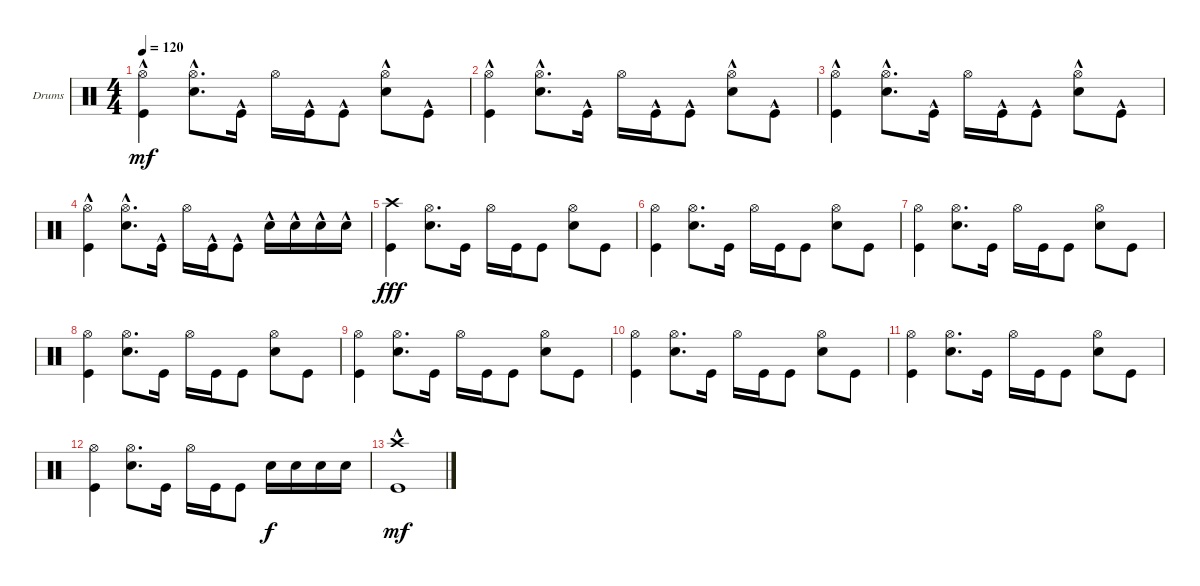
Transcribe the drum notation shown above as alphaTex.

\defaultSystemsLayout 4
\bracketExtendMode groupsimilarinstruments
\firstSystemTrackNameOrientation horizontal
\otherSystemsTrackNameOrientation horizontal
\track ("Drumkit" "Drums") {instrument percussion}
\staff {score}
\articulation defaults
\ts (4 4)
\tempo 120
\clef neutral
\ks c
("Kick (hit)"{hac} "Hi-Hat (open)").4{dy mf} ("Snare (hit) 2"{hac} "Hi-Hat (open)").8{d} "Kick (hit)"{hac}.16 "Hi-Hat (open)".16 "Kick (hit)"{hac}.16 "Kick (hit)"{hac}.8 ("Snare (hit) 2"{hac} "Hi-Hat (open)").8 "Kick (hit)"{hac}.8 |
("Kick (hit)"{hac} "Hi-Hat (open)").4 ("Snare (hit) 2"{hac} "Hi-Hat (open)").8{d} "Kick (hit)"{hac}.16 "Hi-Hat (open)".16 "Kick (hit)"{hac}.16 "Kick (hit)"{hac}.8 ("Snare (hit) 2"{hac} "Hi-Hat (open)").8 "Kick (hit)"{hac}.8 |
("Kick (hit)"{hac} "Hi-Hat (open)").4 ("Snare (hit) 2"{hac} "Hi-Hat (open)").8{d} "Kick (hit)"{hac}.16 "Hi-Hat (open)".16 "Kick (hit)"{hac}.16 "Kick (hit)"{hac}.8 ("Snare (hit) 2"{hac} "Hi-Hat (open)").8 "Kick (hit)"{hac}.8 |
("Kick (hit)"{hac} "Hi-Hat (open)").4 ("Snare (hit) 2"{hac} "Hi-Hat (open)").8{d} "Kick (hit)"{hac}.16 "Hi-Hat (open)".16 "Kick (hit)"{hac}.16 "Kick (hit)"{hac}.8 "Snare (hit) 2"{hac}.16 "Snare (hit) 2"{hac}.16 "Snare (hit) 2"{hac}.16 "Snare (hit) 2"{hac}.16 |
("Kick (hit)" "Crash high (hit)").4{dy fff} ("Snare (hit) 2" "Hi-Hat (open)").8{d} "Kick (hit)".16 "Hi-Hat (open)".16 "Kick (hit)".16 "Kick (hit)".8 ("Snare (hit) 2" "Hi-Hat (open)").8 "Kick (hit)".8 |
("Kick (hit)" "Hi-Hat (open)").4 ("Snare (hit) 2" "Hi-Hat (open)").8{d} "Kick (hit)".16 "Hi-Hat (open)".16 "Kick (hit)".16 "Kick (hit)".8 ("Snare (hit) 2" "Hi-Hat (open)").8 "Kick (hit)".8 |
("Kick (hit)" "Hi-Hat (open)").4 ("Snare (hit) 2" "Hi-Hat (open)").8{d} "Kick (hit)".16 "Hi-Hat (open)".16 "Kick (hit)".16 "Kick (hit)".8 ("Snare (hit) 2" "Hi-Hat (open)").8 "Kick (hit)".8 |
("Kick (hit)" "Hi-Hat (open)").4 ("Snare (hit) 2" "Hi-Hat (open)").8{d} "Kick (hit)".16 "Hi-Hat (open)".16 "Kick (hit)".16 "Kick (hit)".8 ("Snare (hit) 2" "Hi-Hat (open)").8 "Kick (hit)".8 |
("Kick (hit)" "Hi-Hat (open)").4 ("Snare (hit) 2" "Hi-Hat (open)").8{d} "Kick (hit)".16 "Hi-Hat (open)".16 "Kick (hit)".16 "Kick (hit)".8 ("Snare (hit) 2" "Hi-Hat (open)").8 "Kick (hit)".8 |
("Kick (hit)" "Hi-Hat (open)").4 ("Snare (hit) 2" "Hi-Hat (open)").8{d} "Kick (hit)".16 "Hi-Hat (open)".16 "Kick (hit)".16 "Kick (hit)".8 ("Snare (hit) 2" "Hi-Hat (open)").8 "Kick (hit)".8 |
("Kick (hit)" "Hi-Hat (open)").4 ("Snare (hit) 2" "Hi-Hat (open)").8{d} "Kick (hit)".16 "Hi-Hat (open)".16 "Kick (hit)".16 "Kick (hit)".8 ("Snare (hit) 2" "Hi-Hat (open)").8 "Kick (hit)".8 |
("Kick (hit)" "Hi-Hat (open)").4 ("Snare (hit) 2" "Hi-Hat (open)").8{d} "Kick (hit)".16 "Hi-Hat (open)".16 "Kick (hit)".16 "Kick (hit)".8 "Snare (hit) 2".16{dy f} "Snare (hit) 2".16 "Snare (hit) 2".16 "Snare (hit) 2".16 |
("Crash high (hit)"{hac} "Kick (hit)"{hac}).1{dy mf}
